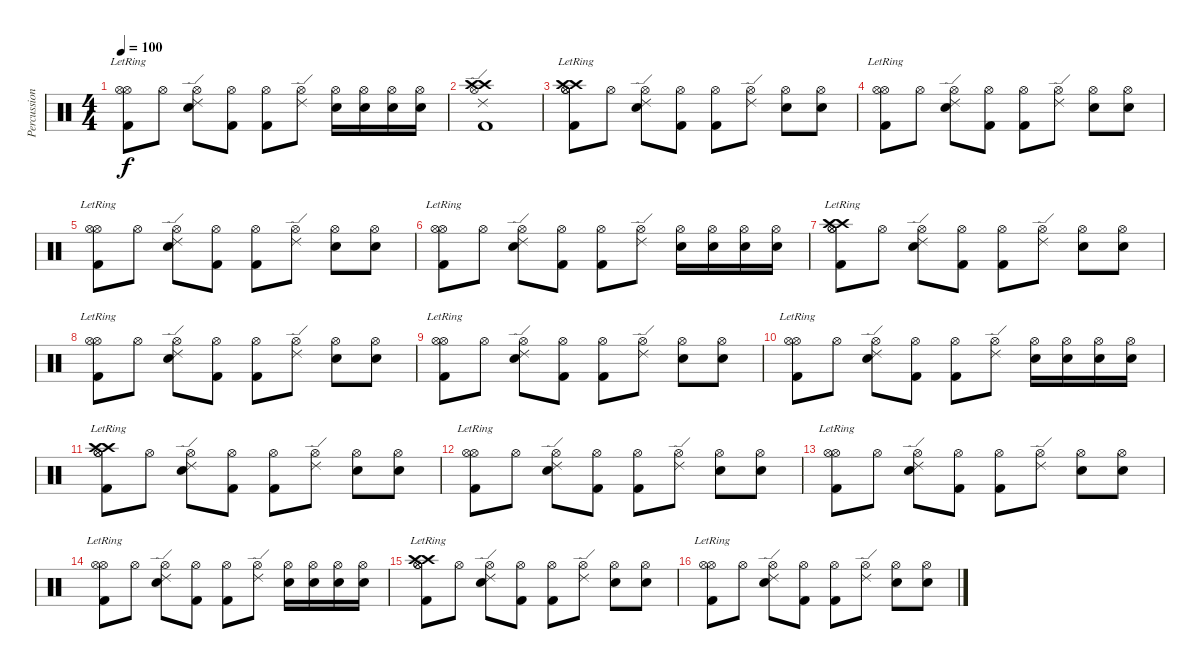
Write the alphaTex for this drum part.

\track ("Percussion" "Percussion") {instrument percussion}
\staff {score}
\articulation defaults
\ts (4 4)
\tempo 100
\clef neutral
\ks c
("Hi-Hat (open)" "Kick (hit) 2"{lr} "Hi-Hat (open)"{lr}).8{dy f} "Hi-Hat (open)".8 ("Ride (edge) 2" "Hi-Hat (open)" "Electric Snare (hit)").8 ("Hi-Hat (open)" "Kick (hit) 2").8 ("Hi-Hat (open)" "Kick (hit) 2").8 ("Ride (edge) 2" "Hi-Hat (open)").8 ("Hi-Hat (open)" "Electric Snare (hit)").16 ("Hi-Hat (open)" "Electric Snare (hit)").16 ("Hi-Hat (open)" "Electric Snare (hit)").16 ("Hi-Hat (open)" "Electric Snare (hit)").16 |
("Crash high (hit)" "Crash high (hit)" "Kick (hit) 2" "Ride (edge) 2" "Hi-Hat (open)").1 |
("Crash high (hit)"{lr} "Hi-Hat (open)" "Kick (hit) 2"{lr} "Hi-Hat (open)"{lr} "Crash high (hit)"{lr}).8 "Hi-Hat (open)".8 ("Ride (edge) 2" "Hi-Hat (open)" "Electric Snare (hit)").8 ("Hi-Hat (open)" "Kick (hit) 2").8 ("Hi-Hat (open)" "Kick (hit) 2").8 ("Ride (edge) 2" "Hi-Hat (open)").8 ("Hi-Hat (open)" "Electric Snare (hit)").8 ("Hi-Hat (open)" "Electric Snare (hit)").8 |
("Hi-Hat (open)" "Kick (hit) 2"{lr} "Hi-Hat (open)"{lr}).8 "Hi-Hat (open)".8 ("Ride (edge) 2" "Hi-Hat (open)" "Electric Snare (hit)").8 ("Hi-Hat (open)" "Kick (hit) 2").8 ("Hi-Hat (open)" "Kick (hit) 2").8 ("Ride (edge) 2" "Hi-Hat (open)").8 ("Hi-Hat (open)" "Electric Snare (hit)").8 ("Hi-Hat (open)" "Electric Snare (hit)").8 |
("Hi-Hat (open)" "Kick (hit) 2"{lr} "Hi-Hat (open)"{lr}).8 "Hi-Hat (open)".8 ("Ride (edge) 2" "Hi-Hat (open)" "Electric Snare (hit)").8 ("Hi-Hat (open)" "Kick (hit) 2").8 ("Hi-Hat (open)" "Kick (hit) 2").8 ("Ride (edge) 2" "Hi-Hat (open)").8 ("Hi-Hat (open)" "Electric Snare (hit)").8 ("Hi-Hat (open)" "Electric Snare (hit)").8 |
("Hi-Hat (open)" "Kick (hit) 2"{lr} "Hi-Hat (open)"{lr}).8 "Hi-Hat (open)".8 ("Ride (edge) 2" "Hi-Hat (open)" "Electric Snare (hit)").8 ("Hi-Hat (open)" "Kick (hit) 2").8 ("Hi-Hat (open)" "Kick (hit) 2").8 ("Ride (edge) 2" "Hi-Hat (open)").8 ("Hi-Hat (open)" "Electric Snare (hit)").16 ("Hi-Hat (open)" "Electric Snare (hit)").16 ("Hi-Hat (open)" "Electric Snare (hit)").16 ("Hi-Hat (open)" "Electric Snare (hit)").16 |
("Crash high (hit)"{lr} "Hi-Hat (open)" "Kick (hit) 2"{lr} "Hi-Hat (open)"{lr} "Crash high (hit)"{lr}).8 "Hi-Hat (open)".8 ("Ride (edge) 2" "Hi-Hat (open)" "Electric Snare (hit)").8 ("Hi-Hat (open)" "Kick (hit) 2").8 ("Hi-Hat (open)" "Kick (hit) 2").8 ("Ride (edge) 2" "Hi-Hat (open)").8 ("Hi-Hat (open)" "Electric Snare (hit)").8 ("Hi-Hat (open)" "Electric Snare (hit)").8 |
("Hi-Hat (open)" "Kick (hit) 2"{lr} "Hi-Hat (open)"{lr}).8 "Hi-Hat (open)".8 ("Ride (edge) 2" "Hi-Hat (open)" "Electric Snare (hit)").8 ("Hi-Hat (open)" "Kick (hit) 2").8 ("Hi-Hat (open)" "Kick (hit) 2").8 ("Ride (edge) 2" "Hi-Hat (open)").8 ("Hi-Hat (open)" "Electric Snare (hit)").8 ("Hi-Hat (open)" "Electric Snare (hit)").8 |
("Hi-Hat (open)" "Kick (hit) 2"{lr} "Hi-Hat (open)"{lr}).8 "Hi-Hat (open)".8 ("Ride (edge) 2" "Hi-Hat (open)" "Electric Snare (hit)").8 ("Hi-Hat (open)" "Kick (hit) 2").8 ("Hi-Hat (open)" "Kick (hit) 2").8 ("Ride (edge) 2" "Hi-Hat (open)").8 ("Hi-Hat (open)" "Electric Snare (hit)").8 ("Hi-Hat (open)" "Electric Snare (hit)").8 |
("Hi-Hat (open)" "Kick (hit) 2"{lr} "Hi-Hat (open)"{lr}).8 "Hi-Hat (open)".8 ("Ride (edge) 2" "Hi-Hat (open)" "Electric Snare (hit)").8 ("Hi-Hat (open)" "Kick (hit) 2").8 ("Hi-Hat (open)" "Kick (hit) 2").8 ("Ride (edge) 2" "Hi-Hat (open)").8 ("Hi-Hat (open)" "Electric Snare (hit)").16 ("Hi-Hat (open)" "Electric Snare (hit)").16 ("Hi-Hat (open)" "Electric Snare (hit)").16 ("Hi-Hat (open)" "Electric Snare (hit)").16 |
("Crash high (hit)"{lr} "Hi-Hat (open)" "Kick (hit) 2"{lr} "Hi-Hat (open)"{lr} "Crash high (hit)"{lr}).8 "Hi-Hat (open)".8 ("Ride (edge) 2" "Hi-Hat (open)" "Electric Snare (hit)").8 ("Hi-Hat (open)" "Kick (hit) 2").8 ("Hi-Hat (open)" "Kick (hit) 2").8 ("Ride (edge) 2" "Hi-Hat (open)").8 ("Hi-Hat (open)" "Electric Snare (hit)").8 ("Hi-Hat (open)" "Electric Snare (hit)").8 |
("Hi-Hat (open)" "Kick (hit) 2"{lr} "Hi-Hat (open)"{lr}).8 "Hi-Hat (open)".8 ("Ride (edge) 2" "Hi-Hat (open)" "Electric Snare (hit)").8 ("Hi-Hat (open)" "Kick (hit) 2").8 ("Hi-Hat (open)" "Kick (hit) 2").8 ("Ride (edge) 2" "Hi-Hat (open)").8 ("Hi-Hat (open)" "Electric Snare (hit)").8 ("Hi-Hat (open)" "Electric Snare (hit)").8 |
("Hi-Hat (open)" "Kick (hit) 2"{lr} "Hi-Hat (open)"{lr}).8 "Hi-Hat (open)".8 ("Ride (edge) 2" "Hi-Hat (open)" "Electric Snare (hit)").8 ("Hi-Hat (open)" "Kick (hit) 2").8 ("Hi-Hat (open)" "Kick (hit) 2").8 ("Ride (edge) 2" "Hi-Hat (open)").8 ("Hi-Hat (open)" "Electric Snare (hit)").8 ("Hi-Hat (open)" "Electric Snare (hit)").8 |
("Hi-Hat (open)" "Kick (hit) 2"{lr} "Hi-Hat (open)"{lr}).8 "Hi-Hat (open)".8 ("Ride (edge) 2" "Hi-Hat (open)" "Electric Snare (hit)").8 ("Hi-Hat (open)" "Kick (hit) 2").8 ("Hi-Hat (open)" "Kick (hit) 2").8 ("Ride (edge) 2" "Hi-Hat (open)").8 ("Hi-Hat (open)" "Electric Snare (hit)").16 ("Hi-Hat (open)" "Electric Snare (hit)").16 ("Hi-Hat (open)" "Electric Snare (hit)").16 ("Hi-Hat (open)" "Electric Snare (hit)").16 |
("Crash high (hit)"{lr} "Hi-Hat (open)" "Kick (hit) 2"{lr} "Hi-Hat (open)"{lr} "Crash high (hit)"{lr}).8 "Hi-Hat (open)".8 ("Ride (edge) 2" "Hi-Hat (open)" "Electric Snare (hit)").8 ("Hi-Hat (open)" "Kick (hit) 2").8 ("Hi-Hat (open)" "Kick (hit) 2").8 ("Ride (edge) 2" "Hi-Hat (open)").8 ("Hi-Hat (open)" "Electric Snare (hit)").8 ("Hi-Hat (open)" "Electric Snare (hit)").8 |
("Hi-Hat (open)" "Kick (hit) 2"{lr} "Hi-Hat (open)"{lr}).8 "Hi-Hat (open)".8 ("Ride (edge) 2" "Hi-Hat (open)" "Electric Snare (hit)").8 ("Hi-Hat (open)" "Kick (hit) 2").8 ("Hi-Hat (open)" "Kick (hit) 2").8 ("Ride (edge) 2" "Hi-Hat (open)").8 ("Hi-Hat (open)" "Electric Snare (hit)").8 ("Hi-Hat (open)" "Electric Snare (hit)").8
